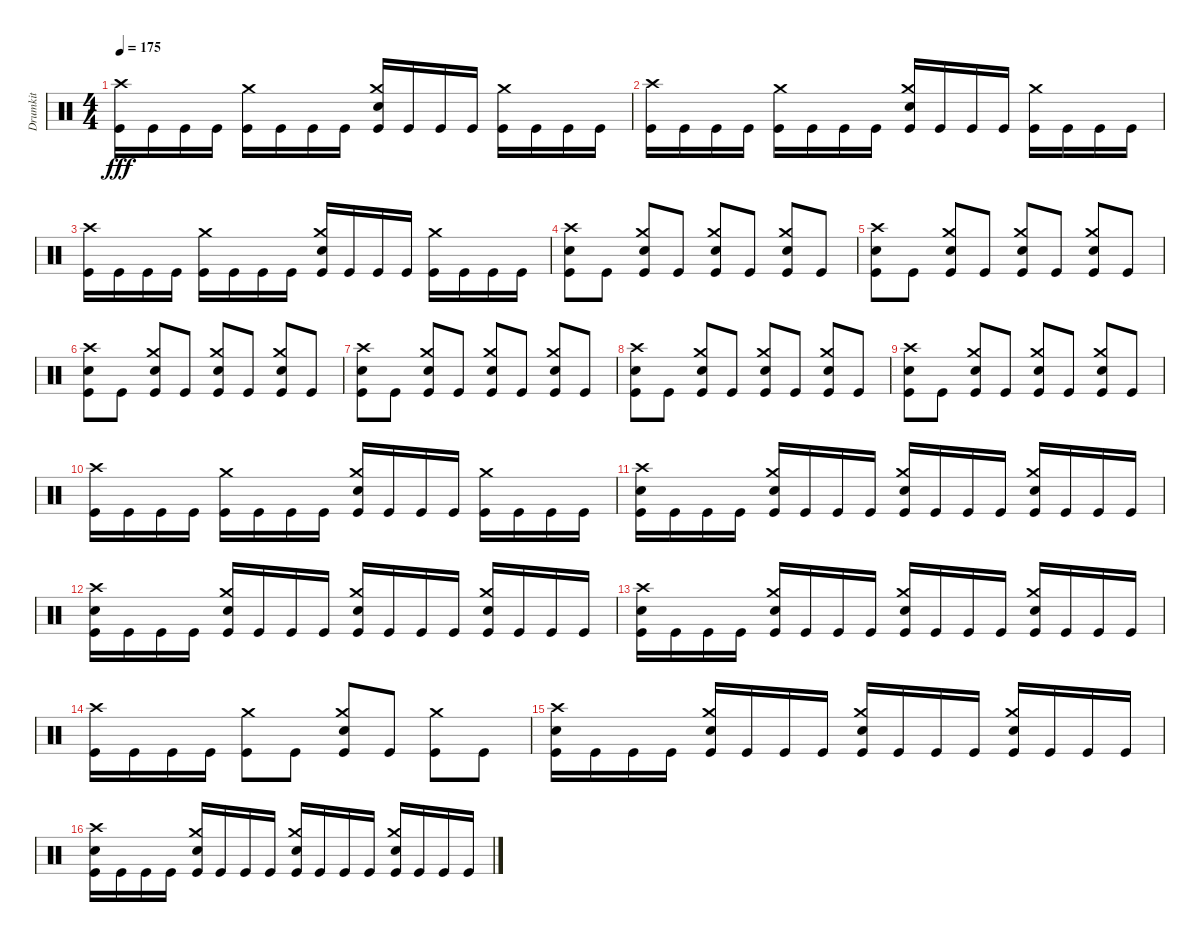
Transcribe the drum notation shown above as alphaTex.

\track ("Drumkit" "Drumkit") {instrument percussion}
\staff {score}
\articulation defaults
\ts (4 4)
\tempo 175
\clef neutral
\ks c
("Crash high (hit)" "Kick (hit)").16{dy fff} "Kick (hit)".16 "Kick (hit)".16 "Kick (hit)".16 ("Crash medium (hit)" "Kick (hit)").16 "Kick (hit)".16 "Kick (hit)".16 "Kick (hit)".16 ("Crash medium (hit)" "Snare (hit) 2" "Kick (hit)").16 "Kick (hit)".16 "Kick (hit)".16 "Kick (hit)".16 ("Crash medium (hit)" "Kick (hit)").16 "Kick (hit)".16 "Kick (hit)".16 "Kick (hit)".16 |
("Crash high (hit)" "Kick (hit)").16 "Kick (hit)".16 "Kick (hit)".16 "Kick (hit)".16 ("Crash medium (hit)" "Kick (hit)").16 "Kick (hit)".16 "Kick (hit)".16 "Kick (hit)".16 ("Crash medium (hit)" "Snare (hit) 2" "Kick (hit)").16 "Kick (hit)".16 "Kick (hit)".16 "Kick (hit)".16 ("Crash medium (hit)" "Kick (hit)").16 "Kick (hit)".16 "Kick (hit)".16 "Kick (hit)".16 |
("Crash high (hit)" "Kick (hit)").16 "Kick (hit)".16 "Kick (hit)".16 "Kick (hit)".16 ("Crash medium (hit)" "Kick (hit)").16 "Kick (hit)".16 "Kick (hit)".16 "Kick (hit)".16 ("Crash medium (hit)" "Snare (hit) 2" "Kick (hit)").16 "Kick (hit)".16 "Kick (hit)".16 "Kick (hit)".16 ("Crash medium (hit)" "Kick (hit)").16 "Kick (hit)".16 "Kick (hit)".16 "Kick (hit)".16 |
("Crash high (hit)" "Snare (hit) 2" "Kick (hit)").8 "Kick (hit)".8 ("Crash medium (hit)" "Snare (hit) 2" "Kick (hit)").8 "Kick (hit)".8 ("Crash medium (hit)" "Snare (hit) 2" "Kick (hit)").8 "Kick (hit)".8 ("Crash medium (hit)" "Snare (hit) 2" "Kick (hit)").8 "Kick (hit)".8 |
("Crash high (hit)" "Snare (hit) 2" "Kick (hit)").8 "Kick (hit)".8 ("Crash medium (hit)" "Snare (hit) 2" "Kick (hit)").8 "Kick (hit)".8 ("Crash medium (hit)" "Snare (hit) 2" "Kick (hit)").8 "Kick (hit)".8 ("Crash medium (hit)" "Snare (hit) 2" "Kick (hit)").8 "Kick (hit)".8 |
("Crash high (hit)" "Snare (hit) 2" "Kick (hit)").8 "Kick (hit)".8 ("Crash medium (hit)" "Snare (hit) 2" "Kick (hit)").8 "Kick (hit)".8 ("Crash medium (hit)" "Snare (hit) 2" "Kick (hit)").8 "Kick (hit)".8 ("Crash medium (hit)" "Snare (hit) 2" "Kick (hit)").8 "Kick (hit)".8 |
("Crash high (hit)" "Snare (hit) 2" "Kick (hit)").8 "Kick (hit)".8 ("Crash medium (hit)" "Snare (hit) 2" "Kick (hit)").8 "Kick (hit)".8 ("Crash medium (hit)" "Snare (hit) 2" "Kick (hit)").8 "Kick (hit)".8 ("Crash medium (hit)" "Snare (hit) 2" "Kick (hit)").8 "Kick (hit)".8 |
("Crash high (hit)" "Snare (hit) 2" "Kick (hit)").8 "Kick (hit)".8 ("Crash medium (hit)" "Snare (hit) 2" "Kick (hit)").8 "Kick (hit)".8 ("Crash medium (hit)" "Snare (hit) 2" "Kick (hit)").8 "Kick (hit)".8 ("Crash medium (hit)" "Snare (hit) 2" "Kick (hit)").8 "Kick (hit)".8 |
("Crash high (hit)" "Snare (hit) 2" "Kick (hit)").8 "Kick (hit)".8 ("Crash medium (hit)" "Snare (hit) 2" "Kick (hit)").8 "Kick (hit)".8 ("Crash medium (hit)" "Snare (hit) 2" "Kick (hit)").8 "Kick (hit)".8 ("Crash medium (hit)" "Snare (hit) 2" "Kick (hit)").8 "Kick (hit)".8 |
("Crash high (hit)" "Kick (hit)").16 "Kick (hit)".16 "Kick (hit)".16 "Kick (hit)".16 ("Crash medium (hit)" "Kick (hit)").16 "Kick (hit)".16 "Kick (hit)".16 "Kick (hit)".16 ("Crash medium (hit)" "Snare (hit) 2" "Kick (hit)").16 "Kick (hit)".16 "Kick (hit)".16 "Kick (hit)".16 ("Crash medium (hit)" "Kick (hit)").16 "Kick (hit)".16 "Kick (hit)".16 "Kick (hit)".16 |
("Crash high (hit)" "Snare (hit) 2" "Kick (hit)").16 "Kick (hit)".16 "Kick (hit)".16 "Kick (hit)".16 ("Crash medium (hit)" "Snare (hit) 2" "Kick (hit)").16 "Kick (hit)".16 "Kick (hit)".16 "Kick (hit)".16 ("Crash medium (hit)" "Snare (hit) 2" "Kick (hit)").16 "Kick (hit)".16 "Kick (hit)".16 "Kick (hit)".16 ("Crash medium (hit)" "Snare (hit) 2" "Kick (hit)").16 "Kick (hit)".16 "Kick (hit)".16 "Kick (hit)".16 |
("Crash high (hit)" "Snare (hit) 2" "Kick (hit)").16 "Kick (hit)".16 "Kick (hit)".16 "Kick (hit)".16 ("Crash medium (hit)" "Snare (hit) 2" "Kick (hit)").16 "Kick (hit)".16 "Kick (hit)".16 "Kick (hit)".16 ("Crash medium (hit)" "Snare (hit) 2" "Kick (hit)").16 "Kick (hit)".16 "Kick (hit)".16 "Kick (hit)".16 ("Crash medium (hit)" "Snare (hit) 2" "Kick (hit)").16 "Kick (hit)".16 "Kick (hit)".16 "Kick (hit)".16 |
("Crash high (hit)" "Snare (hit) 2" "Kick (hit)").16 "Kick (hit)".16 "Kick (hit)".16 "Kick (hit)".16 ("Crash medium (hit)" "Snare (hit) 2" "Kick (hit)").16 "Kick (hit)".16 "Kick (hit)".16 "Kick (hit)".16 ("Crash medium (hit)" "Snare (hit) 2" "Kick (hit)").16 "Kick (hit)".16 "Kick (hit)".16 "Kick (hit)".16 ("Crash medium (hit)" "Snare (hit) 2" "Kick (hit)").16 "Kick (hit)".16 "Kick (hit)".16 "Kick (hit)".16 |
("Crash high (hit)" "Kick (hit)").16 "Kick (hit)".16 "Kick (hit)".16 "Kick (hit)".16 ("Crash medium (hit)" "Kick (hit)").8 "Kick (hit)".8 ("Crash medium (hit)" "Snare (hit) 2" "Kick (hit)").8 "Kick (hit)".8 ("Crash medium (hit)" "Kick (hit)").8 "Kick (hit)".8 |
("Crash high (hit)" "Snare (hit) 2" "Kick (hit)").16 "Kick (hit)".16 "Kick (hit)".16 "Kick (hit)".16 ("Crash medium (hit)" "Snare (hit) 2" "Kick (hit)").16 "Kick (hit)".16 "Kick (hit)".16 "Kick (hit)".16 ("Crash medium (hit)" "Snare (hit) 2" "Kick (hit)").16 "Kick (hit)".16 "Kick (hit)".16 "Kick (hit)".16 ("Crash medium (hit)" "Snare (hit) 2" "Kick (hit)").16 "Kick (hit)".16 "Kick (hit)".16 "Kick (hit)".16 |
("Crash high (hit)" "Snare (hit) 2" "Kick (hit)").16 "Kick (hit)".16 "Kick (hit)".16 "Kick (hit)".16 ("Crash medium (hit)" "Snare (hit) 2" "Kick (hit)").16 "Kick (hit)".16 "Kick (hit)".16 "Kick (hit)".16 ("Crash medium (hit)" "Snare (hit) 2" "Kick (hit)").16 "Kick (hit)".16 "Kick (hit)".16 "Kick (hit)".16 ("Crash medium (hit)" "Snare (hit) 2" "Kick (hit)").16 "Kick (hit)".16 "Kick (hit)".16 "Kick (hit)".16
